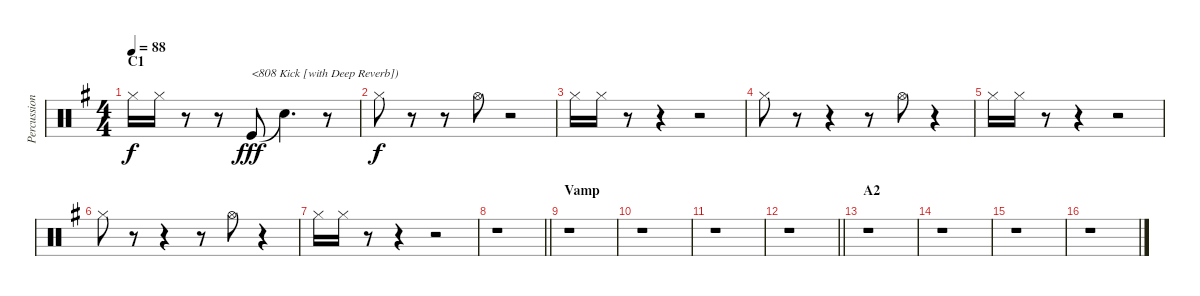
\track ("Percussion" "Percussion") {instrument percussion}
\staff {score}
\articulation defaults
\ts (4 4)
\section ("" "C1")
\tempo 88
\clef neutral
\ks g "Hi-Hat (closed)".16{dy f} "Hi-Hat (closed)".16
r.8 r.8 "Kick (hit)".8{txt "<808 Kick [with Deep Reverb])" dy fff} "Snare (hit)"{t}.4{d} r.8 |
"Hi-Hat (closed)".8{dy f} r.8 r.8 "Hi-Hat (open)".8 r.2 |
"Hi-Hat (closed)".16 "Hi-Hat (closed)".16 r.8 r.4 r.2 |
"Hi-Hat (closed)".8 r.8 r.4 r.8 "Hi-Hat (open)".8 r.4 |
"Hi-Hat (closed)".16 "Hi-Hat (closed)".16 r.8 r.4 r.2 |
"Hi-Hat (closed)".8 r.8 r.4 r.8 "Hi-Hat (open)".8 r.4 |
"Hi-Hat (closed)".16 "Hi-Hat (closed)".16 r.8 r.4 r.2 |
\barLineRight lightlight
r.1 |
\section ("" "Vamp")
r.1 |
r.1 |
r.1 |
\barLineRight lightlight
r.1 |
\section ("" "A2")
r.1 |
r.1 |
r.1 |
r.1
